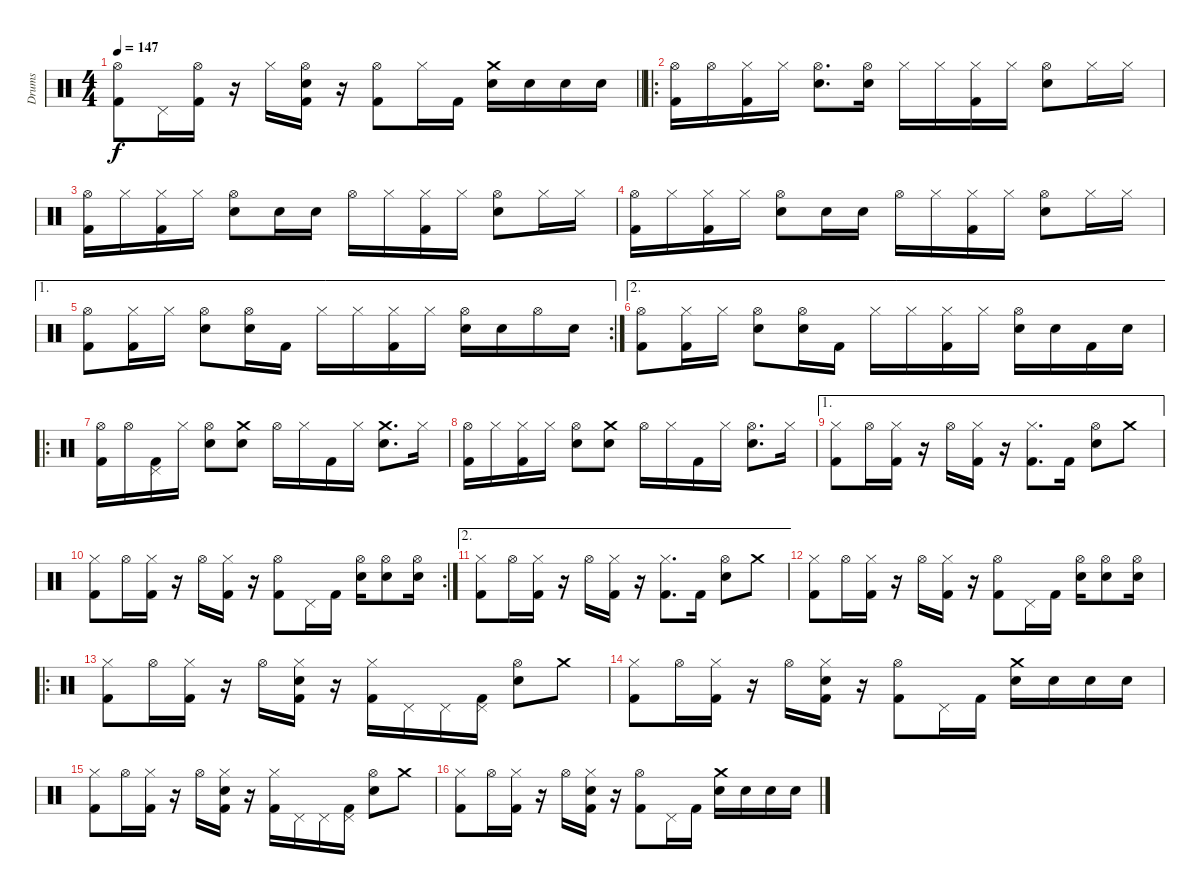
\track ("Drums" "Drums") {instrument percussion}
\staff {score}
\articulation defaults
\ts (4 4)
\tempo 147
\clef neutral
\barLineRight lightlight
\ks c
("Hi-Hat (open)" "Kick (hit) 2").8{dy f} "Pedal Hi-Hat (hit)".16 ("Hi-Hat (open)" "Kick (hit) 2").16 r.16 "Hi-Hat (closed)".16 ("Hi-Hat (open)" "Electric Snare (hit)" "Kick (hit) 2").16 r.16 ("Hi-Hat (open)" "Kick (hit) 2").8 "Hi-Hat (closed)".16 "Kick (hit) 2".16 ("Crash medium (hit)" "Electric Snare (hit)").16 "Electric Snare (hit)".16 "Electric Snare (hit)".16 "Electric Snare (hit)".16 |
\ro
("Hi-Hat (open)" "Kick (hit) 2").16 "Hi-Hat (open)".16 ("Hi-Hat (closed)" "Kick (hit) 2").16 "Hi-Hat (closed)".16 ("Hi-Hat (open)" "Electric Snare (hit)").8{d} ("Hi-Hat (open)" "Electric Snare (hit)").16 "Hi-Hat (closed)".16 "Hi-Hat (closed)".16 ("Hi-Hat (closed)" "Kick (hit) 2").16 "Hi-Hat (closed)".16 ("Hi-Hat (open)" "Electric Snare (hit)").8 "Hi-Hat (closed)".16 "Hi-Hat (closed)".16 |
("Hi-Hat (open)" "Kick (hit) 2").16 "Hi-Hat (closed)".16 ("Hi-Hat (closed)" "Kick (hit) 2").16 "Hi-Hat (closed)".16 ("Hi-Hat (open)" "Electric Snare (hit)").8 "Electric Snare (hit)".16 "Electric Snare (hit)".16 "Hi-Hat (open)".16 "Hi-Hat (closed)".16 ("Hi-Hat (closed)" "Kick (hit) 2").16 "Hi-Hat (closed)".16 ("Hi-Hat (open)" "Electric Snare (hit)").8 "Hi-Hat (closed)".16 "Hi-Hat (closed)".16 |
("Hi-Hat (open)" "Kick (hit) 2").16 "Hi-Hat (closed)".16 ("Hi-Hat (closed)" "Kick (hit) 2").16 "Hi-Hat (closed)".16 ("Hi-Hat (open)" "Electric Snare (hit)").8 "Electric Snare (hit)".16 "Electric Snare (hit)".16 "Hi-Hat (open)".16 "Hi-Hat (closed)".16 ("Hi-Hat (closed)" "Kick (hit) 2").16 "Hi-Hat (closed)".16 ("Hi-Hat (open)" "Electric Snare (hit)").8 "Hi-Hat (closed)".16 "Hi-Hat (closed)".16 |
\ae 1
\rc 2
("Hi-Hat (open)" "Kick (hit) 2").8 ("Hi-Hat (closed)" "Kick (hit) 2").16 "Hi-Hat (closed)".16 ("Hi-Hat (open)" "Electric Snare (hit)").8 ("Hi-Hat (open)" "Electric Snare (hit)").16 "Kick (hit) 2".16 "Hi-Hat (closed)".16 "Hi-Hat (closed)".16 ("Hi-Hat (closed)" "Kick (hit) 2").16 "Hi-Hat (closed)".16 ("Hi-Hat (open)" "Electric Snare (hit)").16 "Electric Snare (hit)".16 "Hi-Hat (open)".16 "Electric Snare (hit)".16 |
\ae 2
("Hi-Hat (open)" "Kick (hit) 2").8 ("Hi-Hat (closed)" "Kick (hit) 2").16 "Hi-Hat (closed)".16 ("Hi-Hat (open)" "Electric Snare (hit)").8 ("Hi-Hat (open)" "Electric Snare (hit)").16 "Kick (hit) 2".16 "Hi-Hat (closed)".16 "Hi-Hat (closed)".16 ("Hi-Hat (closed)" "Kick (hit) 2").16 "Hi-Hat (closed)".16 ("Hi-Hat (open)" "Electric Snare (hit)").16 "Electric Snare (hit)".16 "Kick (hit) 2".16 "Electric Snare (hit)".16 |
\ro
("Hi-Hat (open)" "Kick (hit) 2").16 "Hi-Hat (open)".16 ("Pedal Hi-Hat (hit)" "Kick (hit) 2").16 "Hi-Hat (closed)".16 ("Hi-Hat (open)" "Electric Snare (hit)").8 ("Crash medium (hit)" "Electric Snare (hit)").8 "Hi-Hat (open)".16 "Hi-Hat (closed)".16 "Kick (hit) 2".16 "Hi-Hat (closed)".16 ("Crash medium (hit)" "Electric Snare (hit)").8{d} "Hi-Hat (closed)".16 |
("Hi-Hat (open)" "Kick (hit) 2").16 "Hi-Hat (closed)".16 ("Hi-Hat (closed)" "Kick (hit) 2").16 "Hi-Hat (closed)".16 ("Hi-Hat (open)" "Electric Snare (hit)").8 ("Crash medium (hit)" "Electric Snare (hit)").8 "Hi-Hat (open)".16 "Hi-Hat (closed)".16 "Kick (hit) 2".16 "Hi-Hat (closed)".16 ("Hi-Hat (open)" "Electric Snare (hit)").8{d} "Hi-Hat (closed)".16 |
\ae 1
("Hi-Hat (closed)" "Kick (hit) 2").8 "Hi-Hat (open)".16 ("Hi-Hat (closed)" "Kick (hit) 2").16 r.16 "Hi-Hat (open)".16 ("Hi-Hat (closed)" "Kick (hit) 2").16 r.16 ("Hi-Hat (closed)" "Kick (hit) 2").8{d} "Kick (hit) 2".16 ("Hi-Hat (open)" "Electric Snare (hit)").8 "Crash medium (hit)".8 |
\rc 2
("Hi-Hat (closed)" "Kick (hit) 2").8 "Hi-Hat (open)".16 ("Hi-Hat (closed)" "Kick (hit) 2").16 r.16 "Hi-Hat (open)".16 ("Hi-Hat (closed)" "Kick (hit) 2").16 r.16 ("Hi-Hat (open)" "Kick (hit) 2").8 "Pedal Hi-Hat (hit)".16 "Kick (hit) 2".16 ("Hi-Hat (open)" "Electric Snare (hit)").16 ("Hi-Hat (open)" "Electric Snare (hit)").8 ("Hi-Hat (open)" "Electric Snare (hit)").16 |
\ae 2
("Hi-Hat (closed)" "Kick (hit) 2").8 "Hi-Hat (open)".16 ("Hi-Hat (closed)" "Kick (hit) 2").16 r.16 "Hi-Hat (open)".16 ("Hi-Hat (closed)" "Kick (hit) 2").16 r.16 ("Hi-Hat (closed)" "Kick (hit) 2").8{d} "Kick (hit) 2".16 ("Hi-Hat (open)" "Electric Snare (hit)").8 "Crash medium (hit)".8 |
("Hi-Hat (closed)" "Kick (hit) 2").8 "Hi-Hat (open)".16 ("Hi-Hat (closed)" "Kick (hit) 2").16 r.16 "Hi-Hat (open)".16 ("Hi-Hat (closed)" "Kick (hit) 2").16 r.16 ("Hi-Hat (open)" "Kick (hit) 2").8 "Pedal Hi-Hat (hit)".16 "Kick (hit) 2".16 ("Hi-Hat (open)" "Electric Snare (hit)").16 ("Hi-Hat (open)" "Electric Snare (hit)").8 ("Hi-Hat (open)" "Electric Snare (hit)").16 |
\ro
("Hi-Hat (closed)" "Kick (hit) 2").8 "Hi-Hat (open)".16 ("Hi-Hat (closed)" "Kick (hit) 2").16 r.16 "Hi-Hat (open)".16 ("Hi-Hat (closed)" "Electric Snare (hit)" "Kick (hit) 2").16 r.16 ("Hi-Hat (closed)" "Kick (hit) 2").16 "Pedal Hi-Hat (hit)".16 "Pedal Hi-Hat (hit)".16 ("Pedal Hi-Hat (hit)" "Kick (hit) 2").16 ("Hi-Hat (open)" "Electric Snare (hit)").8 "Crash medium (hit)".8 |
("Hi-Hat (closed)" "Kick (hit) 2").8 "Hi-Hat (open)".16 ("Hi-Hat (closed)" "Kick (hit) 2").16 r.16 "Hi-Hat (open)".16 ("Hi-Hat (closed)" "Electric Snare (hit)" "Kick (hit) 2").16 r.16 ("Hi-Hat (open)" "Kick (hit) 2").8 "Pedal Hi-Hat (hit)".16 "Kick (hit) 2".16 ("Crash medium (hit)" "Electric Snare (hit)").16 "Electric Snare (hit)".16 "Electric Snare (hit)".16 "Electric Snare (hit)".16 |
("Hi-Hat (closed)" "Kick (hit) 2").8 "Hi-Hat (open)".16 ("Hi-Hat (closed)" "Kick (hit) 2").16 r.16 "Hi-Hat (open)".16 ("Hi-Hat (closed)" "Electric Snare (hit)" "Kick (hit) 2").16 r.16 ("Hi-Hat (closed)" "Kick (hit) 2").16 "Pedal Hi-Hat (hit)".16 "Pedal Hi-Hat (hit)".16 ("Pedal Hi-Hat (hit)" "Kick (hit) 2").16 ("Hi-Hat (open)" "Electric Snare (hit)").8 "Crash medium (hit)".8 |
("Hi-Hat (closed)" "Kick (hit) 2").8 "Hi-Hat (open)".16 ("Hi-Hat (closed)" "Kick (hit) 2").16 r.16 "Hi-Hat (open)".16 ("Hi-Hat (closed)" "Electric Snare (hit)" "Kick (hit) 2").16 r.16 ("Hi-Hat (open)" "Kick (hit) 2").8 "Pedal Hi-Hat (hit)".16 "Kick (hit) 2".16 ("Crash medium (hit)" "Electric Snare (hit)").16 "Electric Snare (hit)".16 "Electric Snare (hit)".16 "Electric Snare (hit)".16
